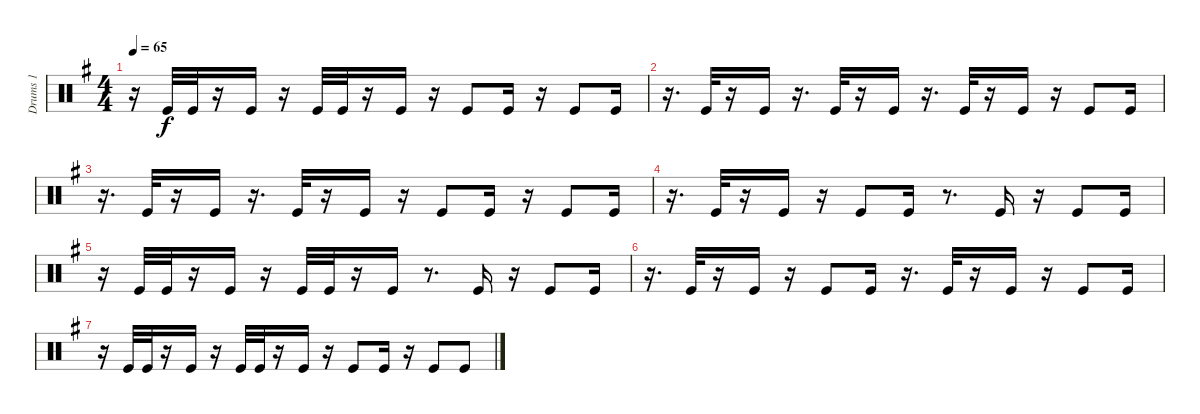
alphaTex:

\track ("Drums 1" "Drums 1") {instrument percussion}
\staff {score}
\articulation defaults
\ts (4 4)
\tempo 65
\clef neutral
\ks g
r.16{dy f} "Kick (hit)".32 "Kick (hit)".32 r.16 "Kick (hit)".16 r.16 "Kick (hit)".32 "Kick (hit)".32 r.16 "Kick (hit)".16 r.16 "Kick (hit)".8 "Kick (hit)".16 r.16 "Kick (hit)".8 "Kick (hit)".16 |
r.16{d} "Kick (hit)".32 r.16 "Kick (hit)".16 r.16{d} "Kick (hit)".32 r.16 "Kick (hit)".16 r.16{d} "Kick (hit)".32 r.16 "Kick (hit)".16 r.16 "Kick (hit)".8 "Kick (hit)".16 |
r.16{d} "Kick (hit)".32 r.16 "Kick (hit)".16 r.16{d} "Kick (hit)".32 r.16 "Kick (hit)".16 r.16 "Kick (hit)".8 "Kick (hit)".16 r.16 "Kick (hit)".8 "Kick (hit)".16 |
r.16{d} "Kick (hit)".32 r.16 "Kick (hit)".16 r.16 "Kick (hit)".8 "Kick (hit)".16 r.8{d} "Kick (hit)".16 r.16 "Kick (hit)".8 "Kick (hit)".16 |
r.16 "Kick (hit)".32 "Kick (hit)".32 r.16 "Kick (hit)".16 r.16 "Kick (hit)".32 "Kick (hit)".32 r.16 "Kick (hit)".16 r.8{d} "Kick (hit)".16 r.16 "Kick (hit)".8 "Kick (hit)".16 |
r.16{d} "Kick (hit)".32 r.16 "Kick (hit)".16 r.16 "Kick (hit)".8 "Kick (hit)".16 r.16{d} "Kick (hit)".32 r.16 "Kick (hit)".16 r.16 "Kick (hit)".8 "Kick (hit)".16 |
r.16 "Kick (hit)".32 "Kick (hit)".32 r.16 "Kick (hit)".16 r.16 "Kick (hit)".32 "Kick (hit)".32 r.16 "Kick (hit)".16 r.16 "Kick (hit)".8 "Kick (hit)".16 r.16 "Kick (hit)".8 "Kick (hit)".8
